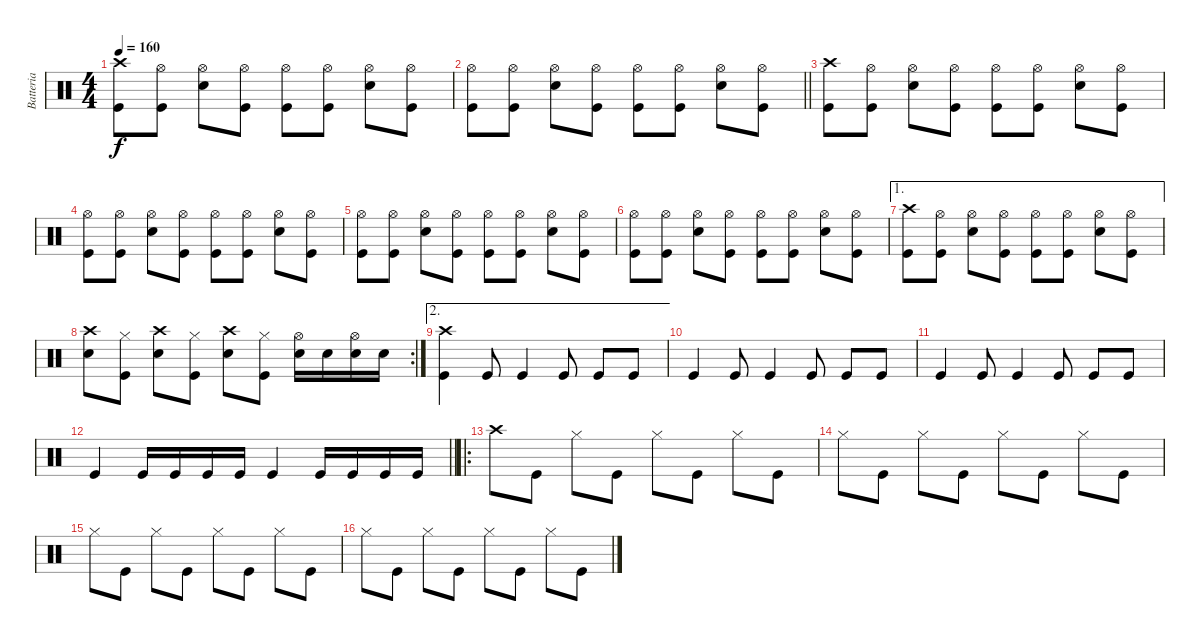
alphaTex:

\track ("Batteria" "Batteria") {instrument percussion}
\staff {score}
\articulation defaults
\ts (4 4)
\tempo 160
\clef neutral
\ks c
("Kick (hit)" "Crash high (hit)").8{dy f} ("Kick (hit)" "Hi-Hat (open)").8 ("Snare (hit) 2" "Hi-Hat (open)").8 ("Kick (hit)" "Hi-Hat (open)").8 ("Kick (hit)" "Hi-Hat (open)").8 ("Kick (hit)" "Hi-Hat (open)").8 ("Snare (hit) 2" "Hi-Hat (open)").8 ("Kick (hit)" "Hi-Hat (open)").8 |
\barLineRight lightlight
("Kick (hit)" "Hi-Hat (open)").8 ("Kick (hit)" "Hi-Hat (open)").8 ("Snare (hit) 2" "Hi-Hat (open)").8 ("Kick (hit)" "Hi-Hat (open)").8 ("Kick (hit)" "Hi-Hat (open)").8 ("Kick (hit)" "Hi-Hat (open)").8 ("Snare (hit) 2" "Hi-Hat (open)").8 ("Kick (hit)" "Hi-Hat (open)").8 |
("Kick (hit)" "Crash high (hit)").8 ("Kick (hit)" "Hi-Hat (open)").8 ("Snare (hit) 2" "Hi-Hat (open)").8 ("Kick (hit)" "Hi-Hat (open)").8 ("Kick (hit)" "Hi-Hat (open)").8 ("Kick (hit)" "Hi-Hat (open)").8 ("Snare (hit) 2" "Hi-Hat (open)").8 ("Kick (hit)" "Hi-Hat (open)").8 |
("Kick (hit)" "Hi-Hat (open)").8 ("Kick (hit)" "Hi-Hat (open)").8 ("Snare (hit) 2" "Hi-Hat (open)").8 ("Kick (hit)" "Hi-Hat (open)").8 ("Kick (hit)" "Hi-Hat (open)").8 ("Kick (hit)" "Hi-Hat (open)").8 ("Snare (hit) 2" "Hi-Hat (open)").8 ("Kick (hit)" "Hi-Hat (open)").8 |
("Kick (hit)" "Hi-Hat (open)").8 ("Kick (hit)" "Hi-Hat (open)").8 ("Snare (hit) 2" "Hi-Hat (open)").8 ("Kick (hit)" "Hi-Hat (open)").8 ("Kick (hit)" "Hi-Hat (open)").8 ("Kick (hit)" "Hi-Hat (open)").8 ("Snare (hit) 2" "Hi-Hat (open)").8 ("Kick (hit)" "Hi-Hat (open)").8 |
("Kick (hit)" "Hi-Hat (open)").8 ("Kick (hit)" "Hi-Hat (open)").8 ("Snare (hit) 2" "Hi-Hat (open)").8 ("Kick (hit)" "Hi-Hat (open)").8 ("Kick (hit)" "Hi-Hat (open)").8 ("Kick (hit)" "Hi-Hat (open)").8 ("Snare (hit) 2" "Hi-Hat (open)").8 ("Kick (hit)" "Hi-Hat (open)").8 |
\ae 1
("Kick (hit)" "Crash high (hit)").8 ("Kick (hit)" "Hi-Hat (open)").8 ("Snare (hit) 2" "Hi-Hat (open)").8 ("Kick (hit)" "Hi-Hat (open)").8 ("Kick (hit)" "Hi-Hat (open)").8 ("Kick (hit)" "Hi-Hat (open)").8 ("Snare (hit) 2" "Hi-Hat (open)").8 ("Kick (hit)" "Hi-Hat (open)").8 |
\rc 2
("Snare (hit) 2" "Crash high (hit)").8 ("Kick (hit)" "Hi-Hat (closed)").8 ("Snare (hit) 2" "Crash high (hit)").8 ("Kick (hit)" "Hi-Hat (closed)").8 ("Snare (hit) 2" "Crash high (hit)").8 ("Kick (hit)" "Hi-Hat (closed)").8 ("Snare (hit) 2" "Hi-Hat (open)").16 "Snare (hit) 2".16 ("Snare (hit) 2" "Hi-Hat (open)").16 "Snare (hit) 2".16 |
\ae 2
("Kick (hit)" "Crash high (hit)").4 "Kick (hit)".8 "Kick (hit)".4 "Kick (hit)".8 "Kick (hit)".8 "Kick (hit)".8 |
"Kick (hit)".4 "Kick (hit)".8 "Kick (hit)".4 "Kick (hit)".8 "Kick (hit)".8 "Kick (hit)".8 |
"Kick (hit)".4 "Kick (hit)".8 "Kick (hit)".4 "Kick (hit)".8 "Kick (hit)".8 "Kick (hit)".8 |
\barLineRight lightlight "Kick (hit)".4 "Kick (hit)".16 "Kick (hit)".16 "Kick (hit)".16 "Kick (hit)".16 "Kick (hit)".4 "Kick (hit)".16 "Kick (hit)".16 "Kick (hit)".16 "Kick (hit)".16
|
\ro "Crash high (hit)".8 "Kick (hit)".8 "Hi-Hat (closed)".8 "Kick (hit)".8 "Hi-Hat (closed)".8 "Kick (hit)".8 "Hi-Hat (closed)".8 "Kick (hit)".8
|
"Hi-Hat (closed)".8 "Kick (hit)".8 "Hi-Hat (closed)".8 "Kick (hit)".8 "Hi-Hat (closed)".8 "Kick (hit)".8 "Hi-Hat (closed)".8 "Kick (hit)".8 |
"Hi-Hat (closed)".8 "Kick (hit)".8 "Hi-Hat (closed)".8 "Kick (hit)".8 "Hi-Hat (closed)".8 "Kick (hit)".8 "Hi-Hat (closed)".8 "Kick (hit)".8 |
"Hi-Hat (closed)".8 "Kick (hit)".8 "Hi-Hat (closed)".8 "Kick (hit)".8 "Hi-Hat (closed)".8 "Kick (hit)".8 "Hi-Hat (closed)".8 "Kick (hit)".8
